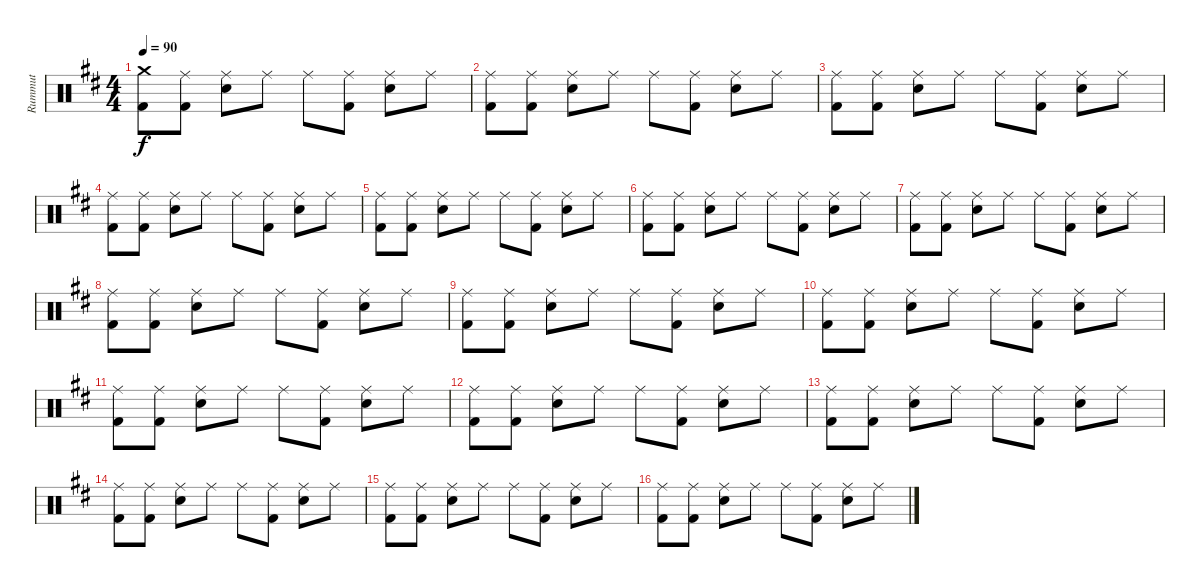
\track ("Rummut" "Rummut") {instrument percussion}
\staff {score}
\articulation defaults
\ts (4 4)
\tempo 90
\clef neutral
\ks d
("Crash medium (hit)" "Kick (hit) 2").8{dy f} ("Ride (middle)" "Kick (hit) 2").8 ("Ride (middle)" "Snare (hit) 2").8 "Ride (middle)".8 "Ride (middle)".8 ("Ride (middle)" "Kick (hit) 2").8 ("Ride (middle)" "Snare (hit) 2").8 "Ride (middle)".8 |
("Ride (middle)" "Kick (hit) 2").8 ("Ride (middle)" "Kick (hit) 2").8 ("Ride (middle)" "Snare (hit) 2").8 "Ride (middle)".8 "Ride (middle)".8 ("Ride (middle)" "Kick (hit) 2").8 ("Ride (middle)" "Snare (hit) 2").8 "Ride (middle)".8 |
("Ride (middle)" "Kick (hit) 2").8 ("Ride (middle)" "Kick (hit) 2").8 ("Ride (middle)" "Snare (hit) 2").8 "Ride (middle)".8 "Ride (middle)".8 ("Ride (middle)" "Kick (hit) 2").8 ("Ride (middle)" "Snare (hit) 2").8 "Ride (middle)".8 |
("Ride (middle)" "Kick (hit) 2").8 ("Ride (middle)" "Kick (hit) 2").8 ("Ride (middle)" "Snare (hit) 2").8 "Ride (middle)".8 "Ride (middle)".8 ("Ride (middle)" "Kick (hit) 2").8 ("Ride (middle)" "Snare (hit) 2").8 "Ride (middle)".8 |
("Ride (middle)" "Kick (hit) 2").8 ("Ride (middle)" "Kick (hit) 2").8 ("Ride (middle)" "Snare (hit) 2").8 "Ride (middle)".8 "Ride (middle)".8 ("Ride (middle)" "Kick (hit) 2").8 ("Ride (middle)" "Snare (hit) 2").8 "Ride (middle)".8 |
("Ride (middle)" "Kick (hit) 2").8 ("Ride (middle)" "Kick (hit) 2").8 ("Ride (middle)" "Snare (hit) 2").8 "Ride (middle)".8 "Ride (middle)".8 ("Ride (middle)" "Kick (hit) 2").8 ("Ride (middle)" "Snare (hit) 2").8 "Ride (middle)".8 |
("Ride (middle)" "Kick (hit) 2").8 ("Ride (middle)" "Kick (hit) 2").8 ("Ride (middle)" "Snare (hit) 2").8 "Ride (middle)".8 "Ride (middle)".8 ("Ride (middle)" "Kick (hit) 2").8 ("Ride (middle)" "Snare (hit) 2").8 "Ride (middle)".8 |
("Ride (middle)" "Kick (hit) 2").8 ("Ride (middle)" "Kick (hit) 2").8 ("Ride (middle)" "Snare (hit) 2").8 "Ride (middle)".8 "Ride (middle)".8 ("Ride (middle)" "Kick (hit) 2").8 ("Ride (middle)" "Snare (hit) 2").8 "Ride (middle)".8 |
("Ride (middle)" "Kick (hit) 2").8 ("Ride (middle)" "Kick (hit) 2").8 ("Ride (middle)" "Snare (hit) 2").8 "Ride (middle)".8 "Ride (middle)".8 ("Ride (middle)" "Kick (hit) 2").8 ("Ride (middle)" "Snare (hit) 2").8 "Ride (middle)".8 |
("Ride (middle)" "Kick (hit) 2").8 ("Ride (middle)" "Kick (hit) 2").8 ("Ride (middle)" "Snare (hit) 2").8 "Ride (middle)".8 "Ride (middle)".8 ("Ride (middle)" "Kick (hit) 2").8 ("Ride (middle)" "Snare (hit) 2").8 "Ride (middle)".8 |
("Ride (middle)" "Kick (hit) 2").8 ("Ride (middle)" "Kick (hit) 2").8 ("Ride (middle)" "Snare (hit) 2").8 "Ride (middle)".8 "Ride (middle)".8 ("Ride (middle)" "Kick (hit) 2").8 ("Ride (middle)" "Snare (hit) 2").8 "Ride (middle)".8 |
("Ride (middle)" "Kick (hit) 2").8 ("Ride (middle)" "Kick (hit) 2").8 ("Ride (middle)" "Snare (hit) 2").8 "Ride (middle)".8 "Ride (middle)".8 ("Ride (middle)" "Kick (hit) 2").8 ("Ride (middle)" "Snare (hit) 2").8 "Ride (middle)".8 |
("Ride (middle)" "Kick (hit) 2").8 ("Ride (middle)" "Kick (hit) 2").8 ("Ride (middle)" "Snare (hit) 2").8 "Ride (middle)".8 "Ride (middle)".8 ("Ride (middle)" "Kick (hit) 2").8 ("Ride (middle)" "Snare (hit) 2").8 "Ride (middle)".8 |
("Ride (middle)" "Kick (hit) 2").8 ("Ride (middle)" "Kick (hit) 2").8 ("Ride (middle)" "Snare (hit) 2").8 "Ride (middle)".8 "Ride (middle)".8 ("Ride (middle)" "Kick (hit) 2").8 ("Ride (middle)" "Snare (hit) 2").8 "Ride (middle)".8 |
("Ride (middle)" "Kick (hit) 2").8 ("Ride (middle)" "Kick (hit) 2").8 ("Ride (middle)" "Snare (hit) 2").8 "Ride (middle)".8 "Ride (middle)".8 ("Ride (middle)" "Kick (hit) 2").8 ("Ride (middle)" "Snare (hit) 2").8 "Ride (middle)".8 |
("Ride (middle)" "Kick (hit) 2").8 ("Ride (middle)" "Kick (hit) 2").8 ("Ride (middle)" "Snare (hit) 2").8 "Ride (middle)".8 "Ride (middle)".8 ("Ride (middle)" "Kick (hit) 2").8 ("Ride (middle)" "Snare (hit) 2").8 "Ride (middle)".8
